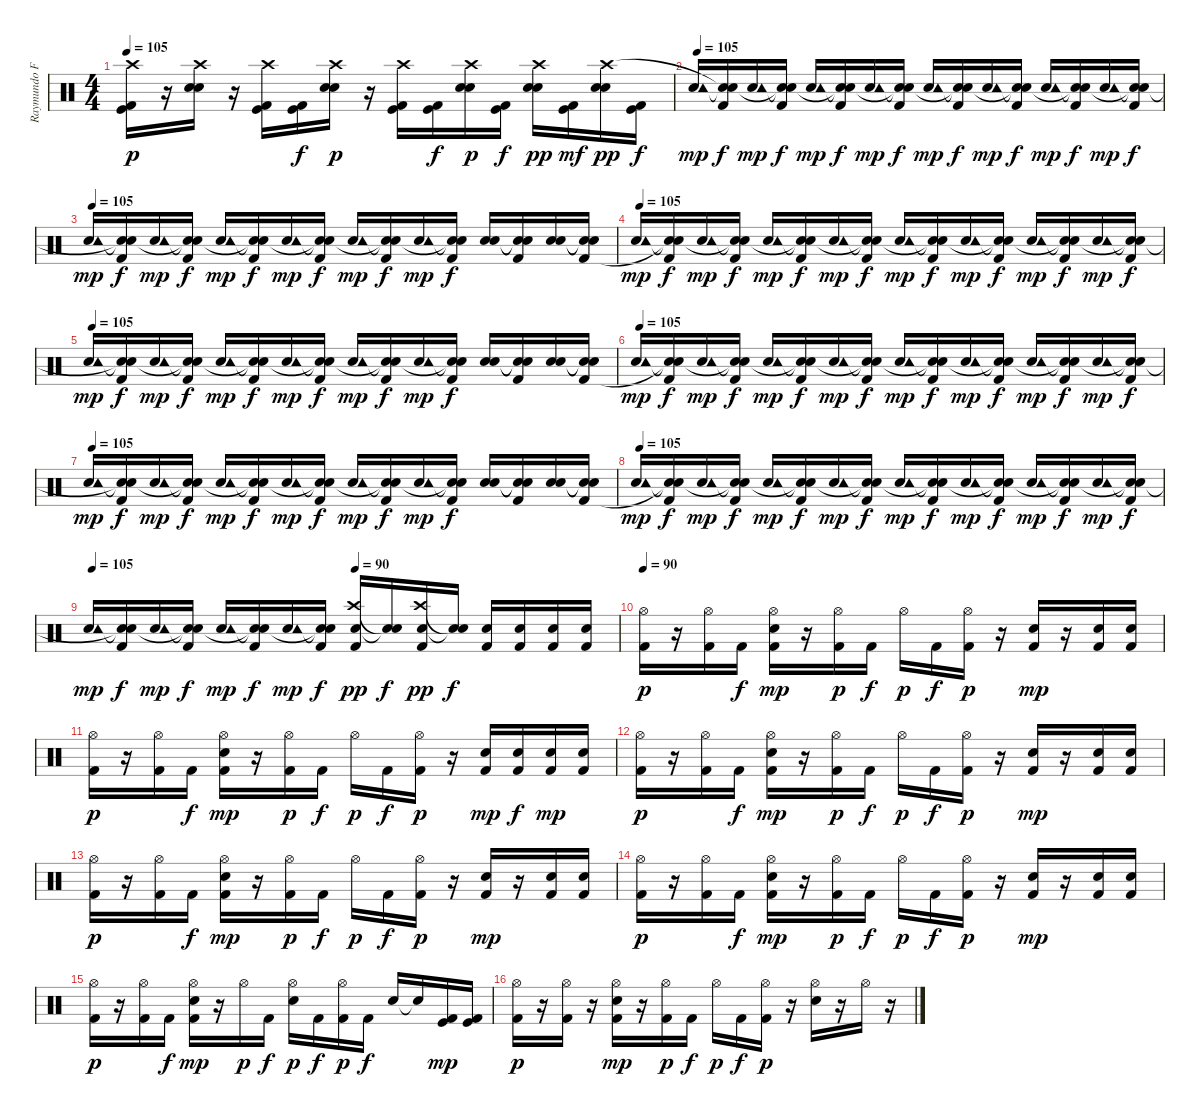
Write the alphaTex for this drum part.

\track ("Raymundo Fajardo (Bateria)" "Raymundo F") {instrument percussion}
\staff {score}
\articulation defaults
\ts (4 4)
\tempo 105
\clef neutral
\ks c
("Kick (hit)" "Kick (hit) 2" "Crash high (hit)").16{dy p} r.16 ("Electric Snare (hit)" "Snare (hit) 2" "Crash high (hit)").16 r.16 ("Kick (hit)" "Kick (hit) 2" "Crash high (hit)").16 ("Kick (hit)" "Kick (hit) 2").16{dy f} ("Electric Snare (hit)" "Snare (hit) 2" "Crash high (hit)").16{dy p} r.16 ("Kick (hit)" "Kick (hit) 2" "Crash high (hit)").16 ("Kick (hit)" "Kick (hit) 2").16{dy f} ("Electric Snare (hit)" "Snare (hit) 2" "Crash high (hit)").16{dy p} ("Kick (hit)" "Kick (hit) 2").16{dy f} ("Electric Snare (hit)" "Snare (hit) 2" "Crash high (hit)").16{dy pp} ("Kick (hit)" "Kick (hit) 2").16{dy mf} ("Electric Snare (hit)" "Snare (hit) 2" "Crash high (hit)").16{dy pp} ("Kick (hit)" "Kick (hit) 2").16{dy f} |
\tempo 105
("Electric Snare (hit)" "Tambourine (hit)").16{dy mp} ("Snare (hit)"{t} "Kick (hit) 2" "Snare (hit)"{t}).16{dy f} ("Electric Snare (hit)" "Tambourine (hit)").16{dy mp} ("Snare (hit)"{t} "Kick (hit) 2" "Snare (hit)"{t}).16{dy f} ("Electric Snare (hit)" "Tambourine (hit)").16{dy mp} ("Snare (hit)"{t} "Kick (hit) 2" "Snare (hit)"{t}).16{dy f} ("Electric Snare (hit)" "Tambourine (hit)").16{dy mp} ("Snare (hit)"{t} "Kick (hit) 2" "Snare (hit)"{t}).16{dy f} ("Electric Snare (hit)" "Tambourine (hit)").16{dy mp} ("Snare (hit)"{t} "Kick (hit) 2" "Snare (hit)"{t}).16{dy f} ("Electric Snare (hit)" "Tambourine (hit)").16{dy mp} ("Snare (hit)"{t} "Kick (hit) 2" "Snare (hit)"{t}).16{dy f} ("Electric Snare (hit)" "Tambourine (hit)").16{dy mp} ("Snare (hit)"{t} "Kick (hit) 2" "Snare (hit)"{t}).16{dy f} ("Electric Snare (hit)" "Tambourine (hit)").16{dy mp} ("Snare (hit)"{t} "Kick (hit) 2" "Snare (hit)"{t}).16{dy f} |
\tempo 105
("Electric Snare (hit)" "Tambourine (hit)").16{dy mp} ("Snare (hit)"{t} "Kick (hit) 2" "Snare (hit)"{t}).16{dy f} ("Electric Snare (hit)" "Tambourine (hit)").16{dy mp} ("Snare (hit)"{t} "Kick (hit) 2" "Snare (hit)"{t}).16{dy f} ("Electric Snare (hit)" "Tambourine (hit)").16{dy mp} ("Snare (hit)"{t} "Kick (hit) 2" "Snare (hit)"{t}).16{dy f} ("Electric Snare (hit)" "Tambourine (hit)").16{dy mp} ("Snare (hit)"{t} "Kick (hit) 2" "Snare (hit)"{t}).16{dy f} ("Electric Snare (hit)" "Tambourine (hit)").16{dy mp} ("Snare (hit)"{t} "Kick (hit) 2" "Snare (hit)"{t}).16{dy f} ("Electric Snare (hit)" "Tambourine (hit)").16{dy mp} ("Snare (hit)"{t} "Kick (hit) 2" "Snare (hit)"{t}).16{dy f} ("Electric Snare (hit)" "Electric Snare (hit)").16 ("Snare (hit)"{t} "Snare (hit)"{t} "Kick (hit) 2").16 ("Electric Snare (hit)" "Electric Snare (hit)").16 ("Snare (hit)"{t} "Snare (hit)"{t} "Kick (hit) 2").16 |
\tempo 105
("Electric Snare (hit)" "Tambourine (hit)").16{dy mp} ("Snare (hit)"{t} "Kick (hit) 2" "Snare (hit)"{t}).16{dy f} ("Electric Snare (hit)" "Tambourine (hit)").16{dy mp} ("Snare (hit)"{t} "Kick (hit) 2" "Snare (hit)"{t}).16{dy f} ("Electric Snare (hit)" "Tambourine (hit)").16{dy mp} ("Snare (hit)"{t} "Kick (hit) 2" "Snare (hit)"{t}).16{dy f} ("Electric Snare (hit)" "Tambourine (hit)").16{dy mp} ("Snare (hit)"{t} "Kick (hit) 2" "Snare (hit)"{t}).16{dy f} ("Electric Snare (hit)" "Tambourine (hit)").16{dy mp} ("Snare (hit)"{t} "Kick (hit) 2" "Snare (hit)"{t}).16{dy f} ("Electric Snare (hit)" "Tambourine (hit)").16{dy mp} ("Snare (hit)"{t} "Kick (hit) 2" "Snare (hit)"{t}).16{dy f} ("Electric Snare (hit)" "Tambourine (hit)").16{dy mp} ("Snare (hit)"{t} "Kick (hit) 2" "Snare (hit)"{t}).16{dy f} ("Electric Snare (hit)" "Tambourine (hit)").16{dy mp} ("Snare (hit)"{t} "Kick (hit) 2" "Snare (hit)"{t}).16{dy f} |
\tempo 105
("Electric Snare (hit)" "Tambourine (hit)").16{dy mp} ("Snare (hit)"{t} "Kick (hit) 2" "Snare (hit)"{t}).16{dy f} ("Electric Snare (hit)" "Tambourine (hit)").16{dy mp} ("Snare (hit)"{t} "Kick (hit) 2" "Snare (hit)"{t}).16{dy f} ("Electric Snare (hit)" "Tambourine (hit)").16{dy mp} ("Snare (hit)"{t} "Kick (hit) 2" "Snare (hit)"{t}).16{dy f} ("Electric Snare (hit)" "Tambourine (hit)").16{dy mp} ("Snare (hit)"{t} "Kick (hit) 2" "Snare (hit)"{t}).16{dy f} ("Electric Snare (hit)" "Tambourine (hit)").16{dy mp} ("Snare (hit)"{t} "Kick (hit) 2" "Snare (hit)"{t}).16{dy f} ("Electric Snare (hit)" "Tambourine (hit)").16{dy mp} ("Snare (hit)"{t} "Kick (hit) 2" "Snare (hit)"{t}).16{dy f} ("Electric Snare (hit)" "Electric Snare (hit)").16 ("Snare (hit)"{t} "Snare (hit)"{t} "Kick (hit) 2").16 ("Electric Snare (hit)" "Electric Snare (hit)").16 ("Snare (hit)"{t} "Snare (hit)"{t} "Kick (hit) 2").16 |
\tempo 105
("Electric Snare (hit)" "Tambourine (hit)").16{dy mp} ("Snare (hit)"{t} "Kick (hit) 2" "Snare (hit)"{t}).16{dy f} ("Electric Snare (hit)" "Tambourine (hit)").16{dy mp} ("Snare (hit)"{t} "Kick (hit) 2" "Snare (hit)"{t}).16{dy f} ("Electric Snare (hit)" "Tambourine (hit)").16{dy mp} ("Snare (hit)"{t} "Kick (hit) 2" "Snare (hit)"{t}).16{dy f} ("Electric Snare (hit)" "Tambourine (hit)").16{dy mp} ("Snare (hit)"{t} "Kick (hit) 2" "Snare (hit)"{t}).16{dy f} ("Electric Snare (hit)" "Tambourine (hit)").16{dy mp} ("Snare (hit)"{t} "Kick (hit) 2" "Snare (hit)"{t}).16{dy f} ("Electric Snare (hit)" "Tambourine (hit)").16{dy mp} ("Snare (hit)"{t} "Kick (hit) 2" "Snare (hit)"{t}).16{dy f} ("Electric Snare (hit)" "Tambourine (hit)").16{dy mp} ("Snare (hit)"{t} "Kick (hit) 2" "Snare (hit)"{t}).16{dy f} ("Electric Snare (hit)" "Tambourine (hit)").16{dy mp} ("Snare (hit)"{t} "Kick (hit) 2" "Snare (hit)"{t}).16{dy f} |
\tempo 105
("Electric Snare (hit)" "Tambourine (hit)").16{dy mp} ("Snare (hit)"{t} "Kick (hit) 2" "Snare (hit)"{t}).16{dy f} ("Electric Snare (hit)" "Tambourine (hit)").16{dy mp} ("Snare (hit)"{t} "Kick (hit) 2" "Snare (hit)"{t}).16{dy f} ("Electric Snare (hit)" "Tambourine (hit)").16{dy mp} ("Snare (hit)"{t} "Kick (hit) 2" "Snare (hit)"{t}).16{dy f} ("Electric Snare (hit)" "Tambourine (hit)").16{dy mp} ("Snare (hit)"{t} "Kick (hit) 2" "Snare (hit)"{t}).16{dy f} ("Electric Snare (hit)" "Tambourine (hit)").16{dy mp} ("Snare (hit)"{t} "Kick (hit) 2" "Snare (hit)"{t}).16{dy f} ("Electric Snare (hit)" "Tambourine (hit)").16{dy mp} ("Snare (hit)"{t} "Kick (hit) 2" "Snare (hit)"{t}).16{dy f} ("Electric Snare (hit)" "Electric Snare (hit)").16 ("Snare (hit)"{t} "Snare (hit)"{t} "Kick (hit) 2").16 ("Electric Snare (hit)" "Electric Snare (hit)").16 ("Snare (hit)"{t} "Snare (hit)"{t} "Kick (hit) 2").16 |
\tempo 105
("Electric Snare (hit)" "Tambourine (hit)").16{dy mp} ("Snare (hit)"{t} "Kick (hit) 2" "Snare (hit)"{t}).16{dy f} ("Electric Snare (hit)" "Tambourine (hit)").16{dy mp} ("Snare (hit)"{t} "Kick (hit) 2" "Snare (hit)"{t}).16{dy f} ("Electric Snare (hit)" "Tambourine (hit)").16{dy mp} ("Snare (hit)"{t} "Kick (hit) 2" "Snare (hit)"{t}).16{dy f} ("Electric Snare (hit)" "Tambourine (hit)").16{dy mp} ("Snare (hit)"{t} "Kick (hit) 2" "Snare (hit)"{t}).16{dy f} ("Electric Snare (hit)" "Tambourine (hit)").16{dy mp} ("Snare (hit)"{t} "Kick (hit) 2" "Snare (hit)"{t}).16{dy f} ("Electric Snare (hit)" "Tambourine (hit)").16{dy mp} ("Snare (hit)"{t} "Kick (hit) 2" "Snare (hit)"{t}).16{dy f} ("Electric Snare (hit)" "Tambourine (hit)").16{dy mp} ("Snare (hit)"{t} "Kick (hit) 2" "Snare (hit)"{t}).16{dy f} ("Electric Snare (hit)" "Tambourine (hit)").16{dy mp} ("Snare (hit)"{t} "Kick (hit) 2" "Snare (hit)"{t}).16{dy f} |
\tempo 105
\tempo (90 0.5)
("Electric Snare (hit)" "Tambourine (hit)").16{dy mp} ("Snare (hit)"{t} "Kick (hit) 2" "Snare (hit)"{t}).16{dy f} ("Electric Snare (hit)" "Tambourine (hit)").16{dy mp} ("Snare (hit)"{t} "Kick (hit) 2" "Snare (hit)"{t}).16{dy f} ("Electric Snare (hit)" "Tambourine (hit)").16{dy mp} ("Snare (hit)"{t} "Kick (hit) 2" "Snare (hit)"{t}).16{dy f} ("Electric Snare (hit)" "Tambourine (hit)").16{dy mp} ("Snare (hit)"{t} "Kick (hit) 2" "Snare (hit)"{t}).16{dy f} ("Electric Snare (hit)" "Crash high (hit)" "Kick (hit) 2").16{dy pp} ("Snare (hit)"{t} "Snare (hit)"{t}).16{dy f} ("Electric Snare (hit)" "Crash high (hit)" "Kick (hit) 2").16{dy pp} ("Snare (hit)"{t} "Snare (hit)"{t}).16{dy f} ("Electric Snare (hit)" "Kick (hit) 2").16 ("Electric Snare (hit)" "Kick (hit) 2").16 ("Electric Snare (hit)" "Kick (hit) 2").16 ("Electric Snare (hit)" "Kick (hit) 2").16 |
\tempo 90
("Hi-Hat (open)" "Kick (hit) 2").16{dy p} r.16 ("Hi-Hat (open)" "Kick (hit) 2").16 "Kick (hit) 2".16{dy f} ("Hi-Hat (open)" "Kick (hit) 2" "Electric Snare (hit)").16{dy mp} r.16 ("Hi-Hat (open)" "Kick (hit) 2").16{dy p} "Kick (hit) 2".16{dy f} "Hi-Hat (open)".16{dy p} "Kick (hit) 2".16{dy f} ("Hi-Hat (open)" "Kick (hit) 2").16{dy p} r.16 ("Electric Snare (hit)" "Kick (hit) 2").16{dy mp} r.16 ("Electric Snare (hit)" "Kick (hit) 2").16 ("Electric Snare (hit)" "Kick (hit) 2").16 |
("Hi-Hat (open)" "Kick (hit) 2").16{dy p} r.16 ("Hi-Hat (open)" "Kick (hit) 2").16 "Kick (hit) 2".16{dy f} ("Hi-Hat (open)" "Kick (hit) 2" "Electric Snare (hit)").16{dy mp} r.16 ("Hi-Hat (open)" "Kick (hit) 2").16{dy p} "Kick (hit) 2".16{dy f} "Hi-Hat (open)".16{dy p} "Kick (hit) 2".16{dy f} ("Hi-Hat (open)" "Kick (hit) 2").16{dy p} r.16 ("Electric Snare (hit)" "Kick (hit) 2").16{dy mp} ("Electric Snare (hit)" "Kick (hit) 2").16{dy f} ("Electric Snare (hit)" "Kick (hit) 2").16{dy mp} ("Electric Snare (hit)" "Kick (hit) 2").16 |
("Hi-Hat (open)" "Kick (hit) 2").16{dy p} r.16 ("Hi-Hat (open)" "Kick (hit) 2").16 "Kick (hit) 2".16{dy f} ("Hi-Hat (open)" "Kick (hit) 2" "Electric Snare (hit)").16{dy mp} r.16 ("Hi-Hat (open)" "Kick (hit) 2").16{dy p} "Kick (hit) 2".16{dy f} "Hi-Hat (open)".16{dy p} "Kick (hit) 2".16{dy f} ("Hi-Hat (open)" "Kick (hit) 2").16{dy p} r.16 ("Electric Snare (hit)" "Kick (hit) 2").16{dy mp} r.16 ("Electric Snare (hit)" "Kick (hit) 2").16 ("Electric Snare (hit)" "Kick (hit) 2").16 |
("Hi-Hat (open)" "Kick (hit) 2").16{dy p} r.16 ("Hi-Hat (open)" "Kick (hit) 2").16 "Kick (hit) 2".16{dy f} ("Hi-Hat (open)" "Kick (hit) 2" "Electric Snare (hit)").16{dy mp} r.16 ("Hi-Hat (open)" "Kick (hit) 2").16{dy p} "Kick (hit) 2".16{dy f} "Hi-Hat (open)".16{dy p} "Kick (hit) 2".16{dy f} ("Hi-Hat (open)" "Kick (hit) 2").16{dy p} r.16 ("Electric Snare (hit)" "Kick (hit) 2").16{dy mp} r.16 ("Electric Snare (hit)" "Kick (hit) 2").16 ("Electric Snare (hit)" "Kick (hit) 2").16 |
("Hi-Hat (open)" "Kick (hit) 2").16{dy p} r.16 ("Hi-Hat (open)" "Kick (hit) 2").16 "Kick (hit) 2".16{dy f} ("Hi-Hat (open)" "Kick (hit) 2" "Electric Snare (hit)").16{dy mp} r.16 ("Hi-Hat (open)" "Kick (hit) 2").16{dy p} "Kick (hit) 2".16{dy f} "Hi-Hat (open)".16{dy p} "Kick (hit) 2".16{dy f} ("Hi-Hat (open)" "Kick (hit) 2").16{dy p} r.16 ("Electric Snare (hit)" "Kick (hit) 2").16{dy mp} r.16 ("Electric Snare (hit)" "Kick (hit) 2").16 ("Electric Snare (hit)" "Kick (hit) 2").16 |
("Hi-Hat (open)" "Kick (hit) 2").16{dy p} r.16 ("Hi-Hat (open)" "Kick (hit) 2").16 "Kick (hit) 2".16{dy f} ("Hi-Hat (open)" "Kick (hit) 2" "Electric Snare (hit)").16{dy mp} r.16 "Hi-Hat (open)".16{dy p} "Kick (hit) 2".16{dy f} ("Hi-Hat (open)" "Electric Snare (hit)").16{dy p} "Kick (hit) 2".16{dy f} ("Hi-Hat (open)" "Kick (hit) 2").16{dy p} "Kick (hit) 2".16{dy f} "Electric Snare (hit)".16 "Snare (hit)"{t}.16 ("Kick (hit)" "Kick (hit) 2").16{dy mp} ("Kick (hit)" "Kick (hit) 2").16 |
("Hi-Hat (open)" "Kick (hit) 2").16{dy p} r.16 ("Hi-Hat (open)" "Kick (hit) 2").16 r.16 ("Hi-Hat (open)" "Kick (hit) 2" "Electric Snare (hit)").16{dy mp} r.16 ("Hi-Hat (open)" "Kick (hit) 2").16{dy p} "Kick (hit) 2".16{dy f} "Hi-Hat (open)".16{dy p} "Kick (hit) 2".16{dy f} ("Hi-Hat (open)" "Kick (hit) 2").16{dy p} r.16 ("Hi-Hat (open)" "Electric Snare (hit)").16 r.16 "Hi-Hat (open)".16 r.16
